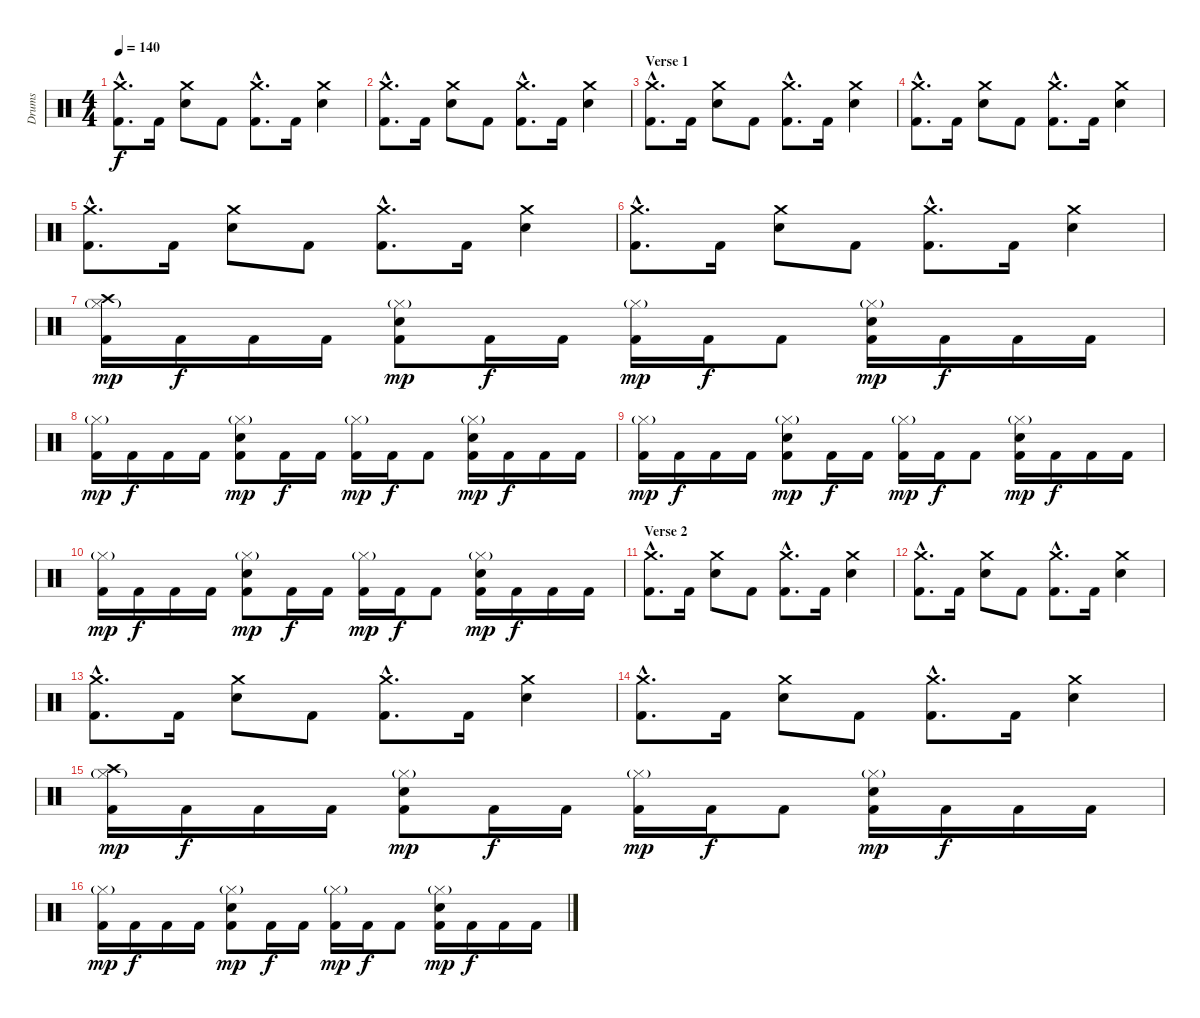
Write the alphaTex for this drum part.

\track ("Drums" "Drums") {instrument percussion}
\staff {score}
\articulation defaults
\ts (4 4)
\tempo 140
\clef neutral
\ks c
("Crash medium (hit)"{hac} "Kick (hit) 2"{hac}).8{d dy f} "Kick (hit) 2".16 ("Crash medium (hit)" "Electric Snare (hit)").8 "Kick (hit) 2".8 ("Crash medium (hit)"{hac} "Kick (hit) 2"{hac}).8{d} "Kick (hit) 2".16 ("Crash medium (hit)" "Electric Snare (hit)").4 |
("Crash medium (hit)"{hac} "Kick (hit) 2"{hac}).8{d} "Kick (hit) 2".16 ("Crash medium (hit)" "Electric Snare (hit)").8 "Kick (hit) 2".8 ("Crash medium (hit)"{hac} "Kick (hit) 2"{hac}).8{d} "Kick (hit) 2".16 ("Crash medium (hit)" "Electric Snare (hit)").4 |
\section ("" "Verse 1")
("Crash medium (hit)"{hac} "Kick (hit) 2"{hac}).8{d} "Kick (hit) 2".16 ("Crash medium (hit)" "Electric Snare (hit)").8 "Kick (hit) 2".8 ("Crash medium (hit)"{hac} "Kick (hit) 2"{hac}).8{d} "Kick (hit) 2".16 ("Crash medium (hit)" "Electric Snare (hit)").4 |
("Crash medium (hit)"{hac} "Kick (hit) 2"{hac}).8{d} "Kick (hit) 2".16 ("Crash medium (hit)" "Electric Snare (hit)").8 "Kick (hit) 2".8 ("Crash medium (hit)"{hac} "Kick (hit) 2"{hac}).8{d} "Kick (hit) 2".16 ("Crash medium (hit)" "Electric Snare (hit)").4 |
("Crash medium (hit)"{hac} "Kick (hit) 2"{hac}).8{d} "Kick (hit) 2".16 ("Crash medium (hit)" "Electric Snare (hit)").8 "Kick (hit) 2".8 ("Crash medium (hit)"{hac} "Kick (hit) 2"{hac}).8{d} "Kick (hit) 2".16 ("Crash medium (hit)" "Electric Snare (hit)").4 |
("Crash medium (hit)"{hac} "Kick (hit) 2"{hac}).8{d} "Kick (hit) 2".16 ("Crash medium (hit)" "Electric Snare (hit)").8 "Kick (hit) 2".8 ("Crash medium (hit)"{hac} "Kick (hit) 2"{hac}).8{d} "Kick (hit) 2".16 ("Crash medium (hit)" "Electric Snare (hit)").4 |
("Crash high (hit)" "Hi-Hat (closed)"{g} "Kick (hit) 2").16{dy mp} "Kick (hit) 2".16{dy f} "Kick (hit) 2".16 "Kick (hit) 2".16 ("Hi-Hat (closed)"{g} "Electric Snare (hit)" "Kick (hit) 2").8{dy mp} "Kick (hit) 2".16{dy f} "Kick (hit) 2".16 ("Hi-Hat (closed)"{g} "Kick (hit) 2").16{dy mp} "Kick (hit) 2".16{dy f} "Kick (hit) 2".8 ("Hi-Hat (closed)"{g} "Electric Snare (hit)" "Kick (hit) 2").16{dy mp} "Kick (hit) 2".16{dy f} "Kick (hit) 2".16 "Kick (hit) 2".16 |
("Hi-Hat (closed)"{g} "Kick (hit) 2").16{dy mp} "Kick (hit) 2".16{dy f} "Kick (hit) 2".16 "Kick (hit) 2".16 ("Hi-Hat (closed)"{g} "Electric Snare (hit)" "Kick (hit) 2").8{dy mp} "Kick (hit) 2".16{dy f} "Kick (hit) 2".16 ("Hi-Hat (closed)"{g} "Kick (hit) 2").16{dy mp} "Kick (hit) 2".16{dy f} "Kick (hit) 2".8 ("Hi-Hat (closed)"{g} "Electric Snare (hit)" "Kick (hit) 2").16{dy mp} "Kick (hit) 2".16{dy f} "Kick (hit) 2".16 "Kick (hit) 2".16 |
("Hi-Hat (closed)"{g} "Kick (hit) 2").16{dy mp} "Kick (hit) 2".16{dy f} "Kick (hit) 2".16 "Kick (hit) 2".16 ("Hi-Hat (closed)"{g} "Electric Snare (hit)" "Kick (hit) 2").8{dy mp} "Kick (hit) 2".16{dy f} "Kick (hit) 2".16 ("Hi-Hat (closed)"{g} "Kick (hit) 2").16{dy mp} "Kick (hit) 2".16{dy f} "Kick (hit) 2".8 ("Hi-Hat (closed)"{g} "Electric Snare (hit)" "Kick (hit) 2").16{dy mp} "Kick (hit) 2".16{dy f} "Kick (hit) 2".16 "Kick (hit) 2".16 |
("Hi-Hat (closed)"{g} "Kick (hit) 2").16{dy mp} "Kick (hit) 2".16{dy f} "Kick (hit) 2".16 "Kick (hit) 2".16 ("Hi-Hat (closed)"{g} "Electric Snare (hit)" "Kick (hit) 2").8{dy mp} "Kick (hit) 2".16{dy f} "Kick (hit) 2".16 ("Hi-Hat (closed)"{g} "Kick (hit) 2").16{dy mp} "Kick (hit) 2".16{dy f} "Kick (hit) 2".8 ("Hi-Hat (closed)"{g} "Electric Snare (hit)" "Kick (hit) 2").16{dy mp} "Kick (hit) 2".16{dy f} "Kick (hit) 2".16 "Kick (hit) 2".16 |
\section ("" "Verse 2")
("Crash medium (hit)"{hac} "Kick (hit) 2"{hac}).8{d} "Kick (hit) 2".16 ("Crash medium (hit)" "Electric Snare (hit)").8 "Kick (hit) 2".8 ("Crash medium (hit)"{hac} "Kick (hit) 2"{hac}).8{d} "Kick (hit) 2".16 ("Crash medium (hit)" "Electric Snare (hit)").4 |
("Crash medium (hit)"{hac} "Kick (hit) 2"{hac}).8{d} "Kick (hit) 2".16 ("Crash medium (hit)" "Electric Snare (hit)").8 "Kick (hit) 2".8 ("Crash medium (hit)"{hac} "Kick (hit) 2"{hac}).8{d} "Kick (hit) 2".16 ("Crash medium (hit)" "Electric Snare (hit)").4 |
("Crash medium (hit)"{hac} "Kick (hit) 2"{hac}).8{d} "Kick (hit) 2".16 ("Crash medium (hit)" "Electric Snare (hit)").8 "Kick (hit) 2".8 ("Crash medium (hit)"{hac} "Kick (hit) 2"{hac}).8{d} "Kick (hit) 2".16 ("Crash medium (hit)" "Electric Snare (hit)").4 |
("Crash medium (hit)"{hac} "Kick (hit) 2"{hac}).8{d} "Kick (hit) 2".16 ("Crash medium (hit)" "Electric Snare (hit)").8 "Kick (hit) 2".8 ("Crash medium (hit)"{hac} "Kick (hit) 2"{hac}).8{d} "Kick (hit) 2".16 ("Crash medium (hit)" "Electric Snare (hit)").4 |
("Crash high (hit)" "Hi-Hat (closed)"{g} "Kick (hit) 2").16{dy mp} "Kick (hit) 2".16{dy f} "Kick (hit) 2".16 "Kick (hit) 2".16 ("Hi-Hat (closed)"{g} "Electric Snare (hit)" "Kick (hit) 2").8{dy mp} "Kick (hit) 2".16{dy f} "Kick (hit) 2".16 ("Hi-Hat (closed)"{g} "Kick (hit) 2").16{dy mp} "Kick (hit) 2".16{dy f} "Kick (hit) 2".8 ("Hi-Hat (closed)"{g} "Electric Snare (hit)" "Kick (hit) 2").16{dy mp} "Kick (hit) 2".16{dy f} "Kick (hit) 2".16 "Kick (hit) 2".16 |
("Hi-Hat (closed)"{g} "Kick (hit) 2").16{dy mp} "Kick (hit) 2".16{dy f} "Kick (hit) 2".16 "Kick (hit) 2".16 ("Hi-Hat (closed)"{g} "Electric Snare (hit)" "Kick (hit) 2").8{dy mp} "Kick (hit) 2".16{dy f} "Kick (hit) 2".16 ("Hi-Hat (closed)"{g} "Kick (hit) 2").16{dy mp} "Kick (hit) 2".16{dy f} "Kick (hit) 2".8 ("Hi-Hat (closed)"{g} "Electric Snare (hit)" "Kick (hit) 2").16{dy mp} "Kick (hit) 2".16{dy f} "Kick (hit) 2".16 "Kick (hit) 2".16
